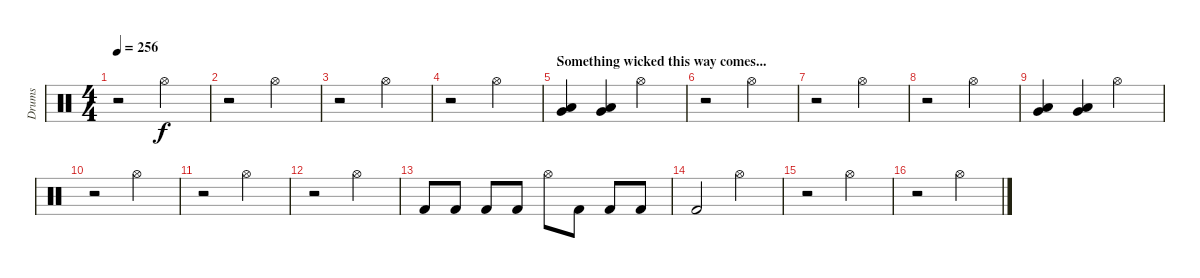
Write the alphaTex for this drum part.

\track ("Drums" "Drums") {instrument percussion}
\staff {score}
\articulation defaults
\ts (4 4)
\tempo 256
\clef neutral
\ks c
r.2{dy f} "Hi-Hat (open)".2 |
r.2 "Hi-Hat (open)".2 |
r.2 "Hi-Hat (open)".2 |
r.2 "Hi-Hat (open)".2 |
\section ("" "Something wicked this way comes...")
("Low Floor Tom (hit)" "Very Low Tom (hit)").4 ("Low Floor Tom (hit)" "Very Low Tom (hit)").4 "Hi-Hat (open)".2 |
r.2 "Hi-Hat (open)".2 |
r.2 "Hi-Hat (open)".2 |
r.2 "Hi-Hat (open)".2 |
("Low Floor Tom (hit)" "Very Low Tom (hit)").4 ("Low Floor Tom (hit)" "Very Low Tom (hit)").4 "Hi-Hat (open)".2 |
r.2 "Hi-Hat (open)".2 |
r.2 "Hi-Hat (open)".2 |
r.2 "Hi-Hat (open)".2 |
"Kick (hit) 2".8 "Kick (hit) 2".8 "Kick (hit) 2".8 "Kick (hit) 2".8 "Hi-Hat (open)".8 "Kick (hit) 2".8 "Kick (hit) 2".8 "Kick (hit) 2".8 |
"Kick (hit) 2".2 "Hi-Hat (open)".2 |
r.2 "Hi-Hat (open)".2 |
r.2 "Hi-Hat (open)".2
